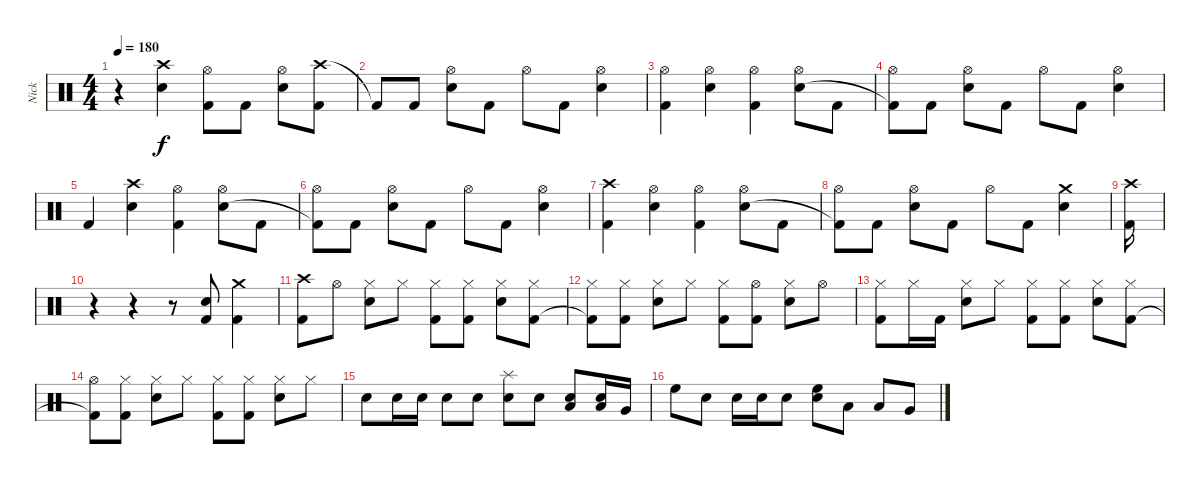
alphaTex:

\track ("Nick" "Nick") {instrument percussion}
\staff {score}
\articulation defaults
\ts (4 4)
\tempo 180
\clef neutral
\ks c
r.4{dy f} ("Crash high (hit)" "Snare (hit) 2").4 ("Hi-Hat (open)" "Kick (hit) 2").8 "Kick (hit) 2".8 ("Hi-Hat (open)" "Snare (hit) 2").8 ("Crash high (hit)" "Kick (hit) 2").8 |
"Kick (hit) 2"{t}.8 "Kick (hit) 2".8 ("Hi-Hat (open)" "Snare (hit) 2").8 "Kick (hit) 2".8 "Hi-Hat (open)".8 "Kick (hit) 2".8 ("Hi-Hat (open)" "Snare (hit) 2").4 |
("Hi-Hat (open)" "Kick (hit) 2").4 ("Hi-Hat (open)" "Snare (hit) 2").4 ("Hi-Hat (open)" "Kick (hit) 2").4 ("Hi-Hat (open)" "Snare (hit) 2").8 "Kick (hit) 2".8 |
("Hi-Hat (open)" "Kick (hit) 2"{t}).8 "Kick (hit) 2".8 ("Hi-Hat (open)" "Snare (hit) 2").8 "Kick (hit) 2".8 "Hi-Hat (open)".8 "Kick (hit) 2".8 ("Hi-Hat (open)" "Snare (hit) 2").4 |
"Kick (hit) 2".4 ("Crash high (hit)" "Snare (hit) 2").4 ("Hi-Hat (open)" "Kick (hit) 2").4 ("Hi-Hat (open)" "Snare (hit) 2").8 "Kick (hit) 2".8 |
("Hi-Hat (open)" "Kick (hit) 2"{t}).8 "Kick (hit) 2".8 ("Hi-Hat (open)" "Snare (hit) 2").8 "Kick (hit) 2".8 "Hi-Hat (open)".8 "Kick (hit) 2".8 ("Hi-Hat (open)" "Snare (hit) 2").4 |
("Crash high (hit)" "Kick (hit) 2").4 ("Hi-Hat (open)" "Snare (hit) 2").4 ("Hi-Hat (open)" "Kick (hit) 2").4 ("Hi-Hat (open)" "Snare (hit) 2").8 "Kick (hit) 2".8 |
("Hi-Hat (open)" "Kick (hit) 2"{t}).8 "Kick (hit) 2".8 ("Hi-Hat (open)" "Snare (hit) 2").8 "Kick (hit) 2".8 "Hi-Hat (open)".8 "Kick (hit) 2".8 ("Crash medium (hit)" "Snare (hit) 2").4 |
("Crash high (hit)" "Kick (hit) 2").16 |
r.4 r.4 r.8 ("Snare (hit) 2" "Kick (hit) 2").8 ("Crash medium (hit)" "Kick (hit) 2").4 |
("Crash high (hit)" "Kick (hit) 2").8 "Hi-Hat (open)".8 ("Hi-Hat (closed)" "Snare (hit) 2").8 "Hi-Hat (closed)".8 ("Hi-Hat (closed)" "Kick (hit) 2").8 ("Hi-Hat (closed)" "Kick (hit) 2").8 ("Hi-Hat (closed)" "Snare (hit) 2").8 ("Hi-Hat (closed)" "Kick (hit) 2").8 |
("Hi-Hat (closed)" "Kick (hit) 2"{t}).8 ("Hi-Hat (closed)" "Kick (hit) 2").8 ("Hi-Hat (closed)" "Snare (hit) 2").8 "Hi-Hat (closed)".8 ("Hi-Hat (closed)" "Kick (hit) 2").8 ("Hi-Hat (open)" "Kick (hit) 2").8 ("Hi-Hat (closed)" "Snare (hit) 2").8 "Hi-Hat (open)".8 |
("Hi-Hat (closed)" "Kick (hit) 2").8 "Hi-Hat (closed)".16 "Kick (hit) 2".16 ("Hi-Hat (closed)" "Snare (hit) 2").8 "Hi-Hat (closed)".8 ("Hi-Hat (closed)" "Kick (hit) 2").8 ("Hi-Hat (closed)" "Kick (hit) 2").8 ("Hi-Hat (closed)" "Snare (hit) 2").8 ("Hi-Hat (closed)" "Kick (hit) 2").8 |
("Hi-Hat (open)" "Kick (hit) 2"{t}).8 ("Hi-Hat (closed)" "Kick (hit) 2").8 ("Hi-Hat (closed)" "Snare (hit) 2").8 "Hi-Hat (closed)".8 ("Hi-Hat (closed)" "Kick (hit) 2").8 ("Hi-Hat (closed)" "Kick (hit) 2").8 ("Hi-Hat (closed)" "Snare (hit) 2").8 "Hi-Hat (closed)".8 |
"Snare (hit) 2".8 "Snare (hit) 2".16 "Snare (hit) 2".16 "Snare (hit) 2".8 "Snare (hit) 2".8 ("Splash (hit)" "Snare (hit) 2").8 "Snare (hit) 2".8 ("Low Tom (hit)" "Snare (hit) 2").8 ("Low Tom (hit)" "Snare (hit) 2").16 "Very Low Tom (hit)".16 |
"High Floor Tom (hit)".8 "Snare (hit) 2".8 "Snare (hit) 2".16 "Snare (hit) 2".16 "Snare (hit) 2".8 ("High Floor Tom (hit)" "Snare (hit) 2").8 "Low Tom (hit)".8 "Low Tom (hit)".8 "Very Low Tom (hit)".8
